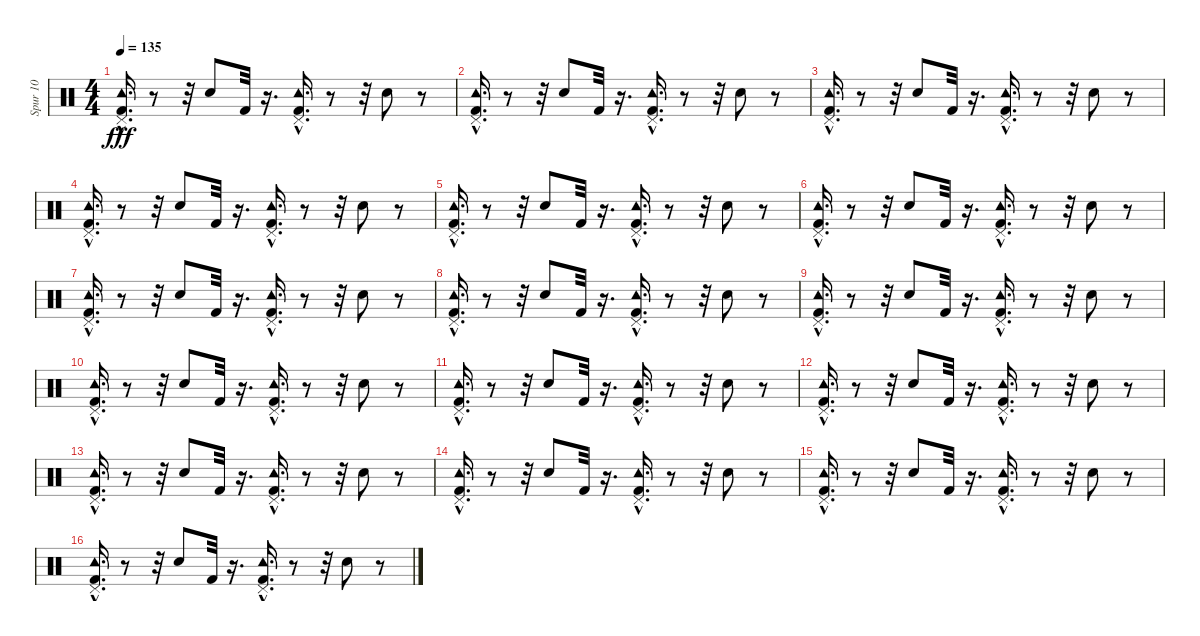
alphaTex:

\track ("Spur 10" "Spur 10") {instrument percussion}
\staff {score}
\articulation defaults
\ts (4 4)
\tempo 135
\clef neutral
\ks c
("Tambourine (hit)" "Pedal Hi-Hat (hit)" "Kick (hit) 2"{hac}).16{d dy fff} r.8 r.32 "Electric Snare (hit)".8 "Kick (hit) 2".32 r.16{d} ("Kick (hit) 2"{hac} "Pedal Hi-Hat (hit)" "Tambourine (hit)").16{d} r.8 r.32 "Electric Snare (hit)".8 r.8 |
("Pedal Hi-Hat (hit)" "Tambourine (hit)" "Kick (hit) 2"{hac}).16{d} r.8 r.32 "Electric Snare (hit)".8 "Kick (hit) 2".32 r.16{d} ("Tambourine (hit)" "Pedal Hi-Hat (hit)" "Kick (hit) 2"{hac}).16{d} r.8 r.32 "Electric Snare (hit)".8 r.8 |
("Kick (hit) 2"{hac} "Tambourine (hit)" "Pedal Hi-Hat (hit)").16{d} r.8 r.32 "Electric Snare (hit)".8 "Kick (hit) 2".32 r.16{d} ("Kick (hit) 2"{hac} "Tambourine (hit)" "Pedal Hi-Hat (hit)").16{d} r.8 r.32 "Electric Snare (hit)".8 r.8 |
("Kick (hit) 2"{hac} "Tambourine (hit)" "Pedal Hi-Hat (hit)").16{d} r.8 r.32 "Electric Snare (hit)".8 "Kick (hit) 2".32 r.16{d} ("Tambourine (hit)" "Kick (hit) 2"{hac} "Pedal Hi-Hat (hit)").16{d} r.8 r.32 "Electric Snare (hit)".8 r.8 |
("Kick (hit) 2"{hac} "Pedal Hi-Hat (hit)" "Tambourine (hit)").16{d} r.8 r.32 "Electric Snare (hit)".8 "Kick (hit) 2".32 r.16{d} ("Kick (hit) 2"{hac} "Pedal Hi-Hat (hit)" "Tambourine (hit)").16{d} r.8 r.32 "Electric Snare (hit)".8 r.8 |
("Pedal Hi-Hat (hit)" "Tambourine (hit)" "Kick (hit) 2"{hac}).16{d} r.8 r.32 "Electric Snare (hit)".8 "Kick (hit) 2".32 r.16{d} ("Kick (hit) 2"{hac} "Tambourine (hit)" "Pedal Hi-Hat (hit)").16{d} r.8 r.32 "Electric Snare (hit)".8 r.8 |
("Pedal Hi-Hat (hit)" "Kick (hit) 2"{hac} "Tambourine (hit)").16{d} r.8 r.32 "Electric Snare (hit)".8 "Kick (hit) 2".32 r.16{d} ("Pedal Hi-Hat (hit)" "Kick (hit) 2"{hac} "Tambourine (hit)").16{d} r.8 r.32 "Electric Snare (hit)".8 r.8 |
("Kick (hit) 2"{hac} "Tambourine (hit)" "Pedal Hi-Hat (hit)").16{d} r.8 r.32 "Electric Snare (hit)".8 "Kick (hit) 2".32 r.16{d} ("Kick (hit) 2"{hac} "Tambourine (hit)" "Pedal Hi-Hat (hit)").16{d} r.8 r.32 "Electric Snare (hit)".8 r.8 |
("Kick (hit) 2"{hac} "Tambourine (hit)" "Pedal Hi-Hat (hit)").16{d} r.8 r.32 "Electric Snare (hit)".8 "Kick (hit) 2".32 r.16{d} ("Tambourine (hit)" "Pedal Hi-Hat (hit)" "Kick (hit) 2"{hac}).16{d} r.8 r.32 "Electric Snare (hit)".8 r.8 |
("Pedal Hi-Hat (hit)" "Kick (hit) 2"{hac} "Tambourine (hit)").16{d} r.8 r.32 "Electric Snare (hit)".8 "Kick (hit) 2".32 r.16{d} ("Tambourine (hit)" "Pedal Hi-Hat (hit)" "Kick (hit) 2"{hac}).16{d} r.8 r.32 "Electric Snare (hit)".8 r.8 |
("Kick (hit) 2"{hac} "Tambourine (hit)" "Pedal Hi-Hat (hit)").16{d} r.8 r.32 "Electric Snare (hit)".8 "Kick (hit) 2".32 r.16{d} ("Kick (hit) 2"{hac} "Pedal Hi-Hat (hit)" "Tambourine (hit)").16{d} r.8 r.32 "Electric Snare (hit)".8 r.8 |
("Pedal Hi-Hat (hit)" "Tambourine (hit)" "Kick (hit) 2"{hac}).16{d} r.8 r.32 "Electric Snare (hit)".8 "Kick (hit) 2".32 r.16{d} ("Kick (hit) 2"{hac} "Pedal Hi-Hat (hit)" "Tambourine (hit)").16{d} r.8 r.32 "Electric Snare (hit)".8 r.8 |
("Pedal Hi-Hat (hit)" "Kick (hit) 2"{hac} "Tambourine (hit)").16{d} r.8 r.32 "Electric Snare (hit)".8 "Kick (hit) 2".32 r.16{d} ("Pedal Hi-Hat (hit)" "Kick (hit) 2"{hac} "Tambourine (hit)").16{d} r.8 r.32 "Electric Snare (hit)".8 r.8 |
("Kick (hit) 2"{hac} "Tambourine (hit)" "Pedal Hi-Hat (hit)").16{d} r.8 r.32 "Electric Snare (hit)".8 "Kick (hit) 2".32 r.16{d} ("Kick (hit) 2"{hac} "Pedal Hi-Hat (hit)" "Tambourine (hit)").16{d} r.8 r.32 "Electric Snare (hit)".8 r.8 |
("Pedal Hi-Hat (hit)" "Kick (hit) 2"{hac} "Tambourine (hit)").16{d} r.8 r.32 "Electric Snare (hit)".8 "Kick (hit) 2".32 r.16{d} ("Tambourine (hit)" "Pedal Hi-Hat (hit)" "Kick (hit) 2"{hac}).16{d} r.8 r.32 "Electric Snare (hit)".8 r.8 |
("Kick (hit) 2"{hac} "Pedal Hi-Hat (hit)" "Tambourine (hit)").16{d} r.8 r.32 "Electric Snare (hit)".8 "Kick (hit) 2".32 r.16{d} ("Tambourine (hit)" "Kick (hit) 2"{hac} "Pedal Hi-Hat (hit)").16{d} r.8 r.32 "Electric Snare (hit)".8 r.8
